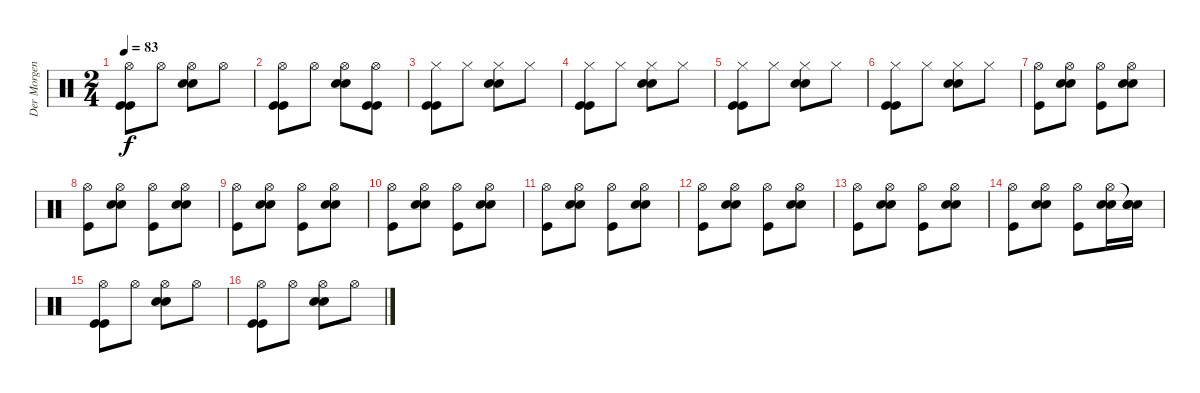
\track ("Der Morgenstern" "Der Morgen") {instrument percussion}
\staff {score}
\articulation defaults
\ts (2 4)
\tempo 83
\clef neutral
\ks c
("Hi-Hat (open)" "Kick (hit)" "Kick (hit)").8{dy f} "Hi-Hat (open)".8 ("Hi-Hat (open)" "Electric Snare (hit)" "Electric Snare (hit)").8 "Hi-Hat (open)".8 |
("Hi-Hat (open)" "Kick (hit)" "Kick (hit)").8 "Hi-Hat (open)".8 ("Hi-Hat (open)" "Electric Snare (hit)" "Electric Snare (hit)").8 ("Hi-Hat (open)" "Kick (hit)" "Kick (hit)").8 |
("Hi-Hat (closed)" "Kick (hit)" "Kick (hit)").8 "Hi-Hat (closed)".8 ("Hi-Hat (closed)" "Electric Snare (hit)" "Electric Snare (hit)").8 "Hi-Hat (closed)".8 |
("Hi-Hat (closed)" "Kick (hit)" "Kick (hit)").8 "Hi-Hat (closed)".8 ("Hi-Hat (closed)" "Electric Snare (hit)" "Electric Snare (hit)").8 "Hi-Hat (closed)".8 |
("Hi-Hat (closed)" "Kick (hit)" "Kick (hit)").8 "Hi-Hat (closed)".8 ("Hi-Hat (closed)" "Electric Snare (hit)" "Electric Snare (hit)").8 "Hi-Hat (closed)".8 |
("Hi-Hat (closed)" "Kick (hit)" "Kick (hit)").8 "Hi-Hat (closed)".8 ("Hi-Hat (closed)" "Electric Snare (hit)" "Electric Snare (hit)").8 "Hi-Hat (closed)".8 |
("Hi-Hat (open)" "Kick (hit)").8 ("Hi-Hat (open)" "Electric Snare (hit)" "Electric Snare (hit)").8 ("Hi-Hat (open)" "Kick (hit)").8 ("Hi-Hat (open)" "Electric Snare (hit)" "Electric Snare (hit)").8 |
("Hi-Hat (open)" "Kick (hit)").8 ("Hi-Hat (open)" "Electric Snare (hit)" "Electric Snare (hit)").8 ("Hi-Hat (open)" "Kick (hit)").8 ("Hi-Hat (open)" "Electric Snare (hit)" "Electric Snare (hit)").8 |
("Hi-Hat (open)" "Kick (hit)").8 ("Hi-Hat (open)" "Electric Snare (hit)" "Electric Snare (hit)").8 ("Hi-Hat (open)" "Kick (hit)").8 ("Hi-Hat (open)" "Electric Snare (hit)" "Electric Snare (hit)").8 |
("Hi-Hat (open)" "Kick (hit)").8 ("Hi-Hat (open)" "Electric Snare (hit)" "Electric Snare (hit)").8 ("Hi-Hat (open)" "Kick (hit)").8 ("Hi-Hat (open)" "Electric Snare (hit)" "Electric Snare (hit)").8 |
("Hi-Hat (open)" "Kick (hit)").8 ("Hi-Hat (open)" "Electric Snare (hit)" "Electric Snare (hit)").8 ("Hi-Hat (open)" "Kick (hit)").8 ("Hi-Hat (open)" "Electric Snare (hit)" "Electric Snare (hit)").8 |
("Hi-Hat (open)" "Kick (hit)").8 ("Hi-Hat (open)" "Electric Snare (hit)" "Electric Snare (hit)").8 ("Hi-Hat (open)" "Kick (hit)").8 ("Hi-Hat (open)" "Electric Snare (hit)" "Electric Snare (hit)").8 |
("Hi-Hat (open)" "Kick (hit)").8 ("Hi-Hat (open)" "Electric Snare (hit)" "Electric Snare (hit)").8 ("Hi-Hat (open)" "Kick (hit)").8 ("Hi-Hat (open)" "Electric Snare (hit)" "Electric Snare (hit)").8 |
("Hi-Hat (open)" "Kick (hit)").8 ("Hi-Hat (open)" "Electric Snare (hit)" "Electric Snare (hit)").8 ("Hi-Hat (open)" "Kick (hit)").8 ("Hi-Hat (open)" "Electric Snare (hit)" "Electric Snare (hit)").16 ("Snare (hit)"{t} "Electric Snare (hit)" "Electric Snare (hit)").16 |
("Hi-Hat (open)" "Kick (hit)" "Kick (hit)").8 "Hi-Hat (open)".8 ("Hi-Hat (open)" "Electric Snare (hit)" "Electric Snare (hit)").8 "Hi-Hat (open)".8 |
("Hi-Hat (open)" "Kick (hit)" "Kick (hit)").8 "Hi-Hat (open)".8 ("Hi-Hat (open)" "Electric Snare (hit)" "Electric Snare (hit)").8 "Hi-Hat (open)".8
